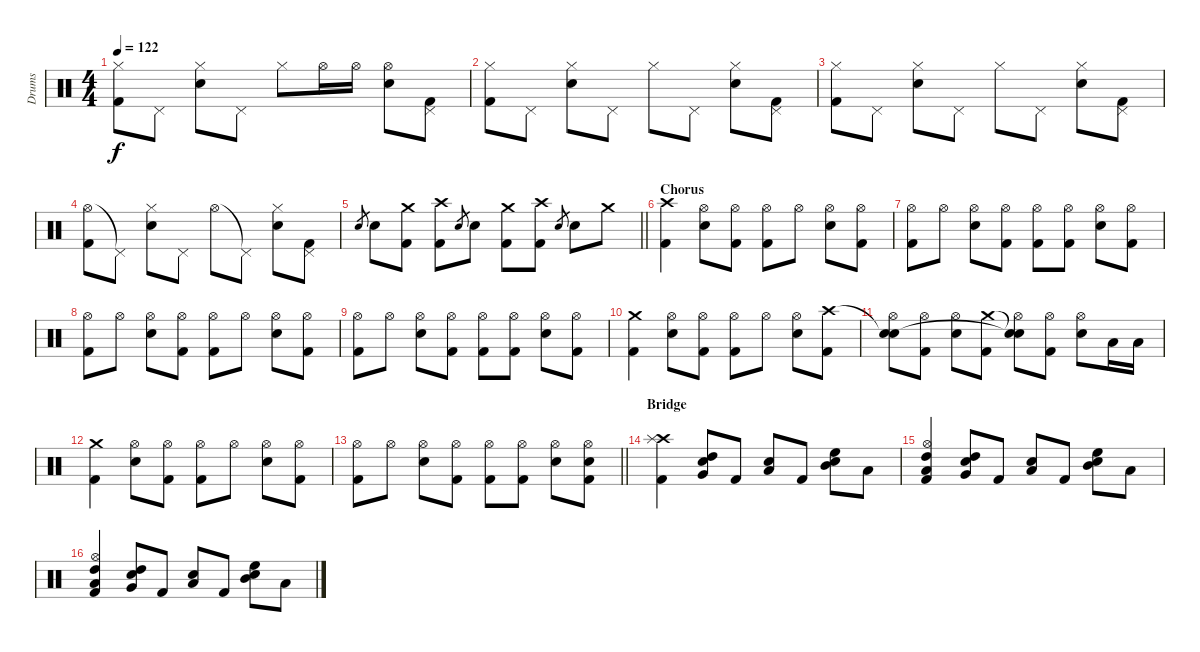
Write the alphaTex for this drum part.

\track ("Drums" "Drums") {instrument percussion}
\staff {score}
\articulation defaults
\ts (4 4)
\tempo 122
\clef neutral
\ks c
("Hi-Hat (closed)" "Kick (hit) 2").8{dy f} "Pedal Hi-Hat (hit)".8 ("Snare (hit) 2" "Hi-Hat (closed)").8 "Pedal Hi-Hat (hit)".8 "Hi-Hat (closed)".8 "Hi-Hat (open)".16 "Hi-Hat (open)".16 ("Snare (hit) 2" "Hi-Hat (open)").8 ("Pedal Hi-Hat (hit)" "Kick (hit) 2").8 |
("Hi-Hat (closed)" "Kick (hit) 2").8 "Pedal Hi-Hat (hit)".8 ("Snare (hit) 2" "Hi-Hat (closed)").8 "Pedal Hi-Hat (hit)".8 "Hi-Hat (closed)".8 "Pedal Hi-Hat (hit)".8 ("Snare (hit) 2" "Hi-Hat (closed)").8 ("Pedal Hi-Hat (hit)" "Kick (hit) 2").8 |
("Hi-Hat (closed)" "Kick (hit) 2").8 "Pedal Hi-Hat (hit)".8 ("Snare (hit) 2" "Hi-Hat (closed)").8 "Pedal Hi-Hat (hit)".8 "Hi-Hat (closed)".8 "Pedal Hi-Hat (hit)".8 ("Snare (hit) 2" "Hi-Hat (closed)").8 ("Pedal Hi-Hat (hit)" "Kick (hit) 2").8 |
("Hi-Hat (open)" "Kick (hit) 2").8 "Pedal Hi-Hat (hit)"{t}.8 ("Snare (hit) 2" "Hi-Hat (closed)").8 "Pedal Hi-Hat (hit)".8 "Hi-Hat (open)".8 "Pedal Hi-Hat (hit)"{t}.8 ("Snare (hit) 2" "Hi-Hat (closed)").8 ("Pedal Hi-Hat (hit)" "Kick (hit) 2").8 |
\barLineRight lightlight "Snare (hit) 2".8{gr} "Snare (hit) 2".8
("Crash medium (hit)" "Kick (hit) 2").8 ("Crash high (hit)" "Kick (hit) 2").8 "Snare (hit) 2".8{gr} "Snare (hit) 2".8 ("Crash medium (hit)" "Kick (hit) 2").8 ("Crash high (hit)" "Kick (hit) 2").8 "Snare (hit) 2".8{gr} "Snare (hit) 2".8 "Crash medium (hit)".8 |
\section ("" "Chorus")
("Crash high (hit)" "Kick (hit) 2").4 ("Snare (hit) 2" "Hi-Hat (open)").8 ("Hi-Hat (open)" "Kick (hit) 2").8 ("Hi-Hat (open)" "Kick (hit) 2").8 "Hi-Hat (open)".8 ("Snare (hit) 2" "Hi-Hat (open)").8 ("Hi-Hat (open)" "Kick (hit) 2").8 |
("Hi-Hat (open)" "Kick (hit) 2").8 "Hi-Hat (open)".8 ("Snare (hit) 2" "Hi-Hat (open)").8 ("Hi-Hat (open)" "Kick (hit) 2").8 ("Hi-Hat (open)" "Kick (hit) 2").8 ("Hi-Hat (open)" "Kick (hit) 2").8 ("Snare (hit) 2" "Hi-Hat (open)").8 ("Hi-Hat (open)" "Kick (hit) 2").8 |
("Hi-Hat (open)" "Kick (hit) 2").8 "Hi-Hat (open)".8 ("Snare (hit) 2" "Hi-Hat (open)").8 ("Hi-Hat (open)" "Kick (hit) 2").8 ("Hi-Hat (open)" "Kick (hit) 2").8 "Hi-Hat (open)".8 ("Snare (hit) 2" "Hi-Hat (open)").8 ("Hi-Hat (open)" "Kick (hit) 2").8 |
("Hi-Hat (open)" "Kick (hit) 2").8 "Hi-Hat (open)".8 ("Snare (hit) 2" "Hi-Hat (open)").8 ("Hi-Hat (open)" "Kick (hit) 2").8 ("Hi-Hat (open)" "Kick (hit) 2").8 ("Hi-Hat (open)" "Kick (hit) 2").8 ("Snare (hit) 2" "Hi-Hat (open)").8 ("Hi-Hat (open)" "Kick (hit) 2").8 |
("Crash medium (hit)" "Kick (hit) 2").4 ("Snare (hit) 2" "Hi-Hat (open)").8 ("Hi-Hat (open)" "Kick (hit) 2").8 ("Hi-Hat (open)" "Kick (hit) 2").8 "Hi-Hat (open)".8 ("Snare (hit) 2" "Hi-Hat (open)").8 ("Crash high (hit)" "Kick (hit) 2").8 |
("Snare (hit)"{t} "Hi-Hat (open)" "Snare (hit)").8 ("Hi-Hat (open)" "Kick (hit) 2").8 ("Snare (hit) 2" "Hi-Hat (open)").8 ("Crash medium (hit)" "Kick (hit) 2").8 ("Snare (hit)"{t} "Hi-Hat (open)" "Snare (hit)"{t}).8 ("Hi-Hat (open)" "Kick (hit) 2").8 ("Snare (hit) 2" "Hi-Hat (open)").8 "Low Tom (hit)".16 "Low Tom (hit)".16 |
("Crash medium (hit)" "Kick (hit) 2").4 ("Snare (hit) 2" "Hi-Hat (open)").8 ("Hi-Hat (open)" "Kick (hit) 2").8 ("Hi-Hat (open)" "Kick (hit) 2").8 "Hi-Hat (open)".8 ("Snare (hit) 2" "Hi-Hat (open)").8 ("Hi-Hat (open)" "Kick (hit) 2").8 |
\barLineRight lightlight
("Hi-Hat (open)" "Kick (hit) 2").8 "Hi-Hat (open)".8 ("Snare (hit) 2" "Hi-Hat (open)").8 ("Hi-Hat (open)" "Kick (hit) 2").8 ("Hi-Hat (open)" "Kick (hit) 2").8 ("Hi-Hat (open)" "Kick (hit) 2").8 ("Snare (hit) 2" "Hi-Hat (open)").8 ("Snare (hit) 2" "Hi-Hat (open)" "Kick (hit) 2").8 |
\section ("" "Bridge")
("Crash high (hit)" "Splash (hit)" "Kick (hit) 2").4 ("Snare (hit) 2" "Very Low Tom (hit)" "High Tom (hit)").8 "Kick (hit) 2".8 ("Snare (hit) 2" "Low Tom (hit)").8 "Kick (hit) 2".8 ("Snare (hit) 2" "Mid Tom (hit)" "High Floor Tom (hit)").8 "Low Floor Tom (hit)".8 |
("Hi-Hat (open)" "High Tom (hit)" "Low Tom (hit)" "Kick (hit) 2").4 ("Snare (hit) 2" "Very Low Tom (hit)" "High Tom (hit)").8 "Kick (hit) 2".8 ("Snare (hit) 2" "Low Tom (hit)").8 "Kick (hit) 2".8 ("Snare (hit) 2" "Mid Tom (hit)" "High Floor Tom (hit)").8 "Low Floor Tom (hit)".8 |
("Hi-Hat (open)" "High Tom (hit)" "Low Tom (hit)" "Kick (hit) 2").4 ("Snare (hit) 2" "Very Low Tom (hit)" "High Tom (hit)").8 "Kick (hit) 2".8 ("Snare (hit) 2" "Low Tom (hit)").8 "Kick (hit) 2".8 ("Snare (hit) 2" "Mid Tom (hit)" "High Floor Tom (hit)").8 "Low Floor Tom (hit)".8
